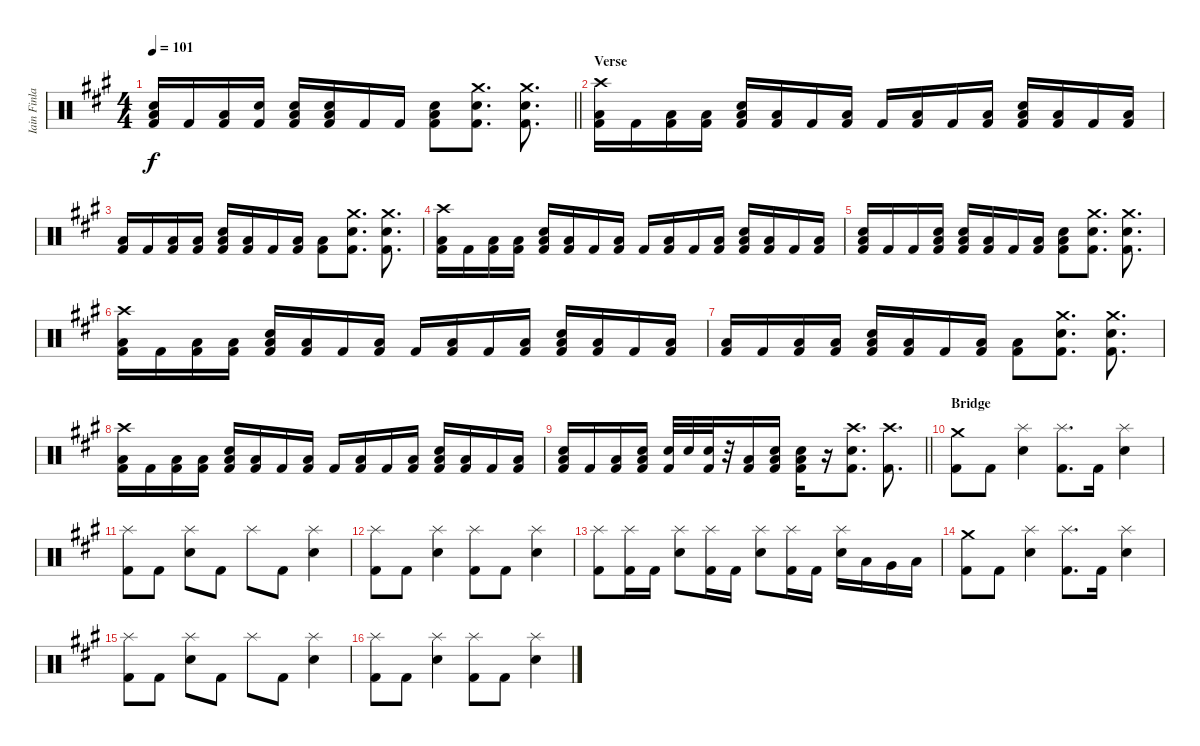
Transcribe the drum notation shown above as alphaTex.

\track ("Iain Finlay" "Iain Finla") {instrument percussion}
\staff {score}
\articulation defaults
\ts (4 4)
\tempo 101
\clef neutral
\barLineRight lightlight
\ks f#minor
("Snare (hit) 2" "Low Tom (hit)" "Kick (hit) 2").16{dy f} "Kick (hit) 2".16 ("Low Floor Tom (hit)" "Kick (hit) 2").16 ("Snare (hit) 2" "Kick (hit) 2").16 ("Snare (hit) 2" "Low Tom (hit)" "Kick (hit) 2").16 ("Snare (hit) 2" "Low Tom (hit)" "Kick (hit) 2").16 "Kick (hit) 2".16 "Kick (hit) 2".16 ("Snare (hit) 2" "Low Tom (hit)" "Kick (hit) 2").8 ("Crash medium (hit)" "Snare (hit) 2" "Kick (hit) 2").8{d} ("Crash medium (hit)" "Snare (hit) 2" "Kick (hit) 2").8{d} |
\section ("" "Verse")
("Crash high (hit)" "Low Floor Tom (hit)" "Kick (hit) 2").16 "Kick (hit) 2".16 ("Low Floor Tom (hit)" "Kick (hit) 2").16 ("Low Floor Tom (hit)" "Kick (hit) 2").16 ("Snare (hit) 2" "Low Tom (hit)" "Kick (hit) 2").16 ("Low Floor Tom (hit)" "Kick (hit) 2").16 "Kick (hit) 2".16 ("Low Floor Tom (hit)" "Kick (hit) 2").16 "Kick (hit) 2".16 ("Low Floor Tom (hit)" "Kick (hit) 2").16 "Kick (hit) 2".16 ("Low Floor Tom (hit)" "Kick (hit) 2").16 ("Snare (hit) 2" "Low Tom (hit)" "Kick (hit) 2").16 ("Low Floor Tom (hit)" "Kick (hit) 2").16 "Kick (hit) 2".16 ("Low Floor Tom (hit)" "Kick (hit) 2").16 |
("Low Floor Tom (hit)" "Kick (hit) 2").16 "Kick (hit) 2".16 ("Low Floor Tom (hit)" "Kick (hit) 2").16 ("Low Floor Tom (hit)" "Kick (hit) 2").16 ("Snare (hit) 2" "Low Tom (hit)" "Kick (hit) 2").16 ("Low Floor Tom (hit)" "Kick (hit) 2").16 "Kick (hit) 2".16 ("Low Floor Tom (hit)" "Kick (hit) 2").16 ("Low Tom (hit)" "Kick (hit) 2").8 ("Crash medium (hit)" "Snare (hit) 2" "Kick (hit) 2").8{d} ("Crash medium (hit)" "Snare (hit) 2" "Kick (hit) 2").8{d} |
("Crash high (hit)" "Low Floor Tom (hit)" "Kick (hit) 2").16 "Kick (hit) 2".16 ("Low Floor Tom (hit)" "Kick (hit) 2").16 ("Low Floor Tom (hit)" "Kick (hit) 2").16 ("Snare (hit) 2" "Low Tom (hit)" "Kick (hit) 2").16 ("Low Floor Tom (hit)" "Kick (hit) 2").16 "Kick (hit) 2".16 ("Low Floor Tom (hit)" "Kick (hit) 2").16 "Kick (hit) 2".16 ("Low Floor Tom (hit)" "Kick (hit) 2").16 "Kick (hit) 2".16 ("Low Floor Tom (hit)" "Kick (hit) 2").16 ("Snare (hit) 2" "Low Tom (hit)" "Kick (hit) 2").16 ("Low Floor Tom (hit)" "Kick (hit) 2").16 "Kick (hit) 2".16 ("Low Floor Tom (hit)" "Kick (hit) 2").16 |
("Snare (hit) 2" "Low Floor Tom (hit)" "Kick (hit) 2").16 "Kick (hit) 2".16 "Kick (hit) 2".16 ("Snare (hit) 2" "Low Floor Tom (hit)" "Kick (hit) 2").16 ("Snare (hit) 2" "Low Tom (hit)" "Kick (hit) 2").16 ("Low Floor Tom (hit)" "Kick (hit) 2").16 "Kick (hit) 2".16 ("Low Floor Tom (hit)" "Kick (hit) 2").16 ("Snare (hit) 2" "Low Tom (hit)" "Kick (hit) 2").8 ("Crash medium (hit)" "Snare (hit) 2" "Kick (hit) 2").8{d} ("Crash medium (hit)" "Snare (hit) 2" "Kick (hit) 2").8{d} |
("Crash high (hit)" "Low Floor Tom (hit)" "Kick (hit) 2").16 "Kick (hit) 2".16 ("Low Floor Tom (hit)" "Kick (hit) 2").16 ("Low Floor Tom (hit)" "Kick (hit) 2").16 ("Snare (hit) 2" "Low Tom (hit)" "Kick (hit) 2").16 ("Low Floor Tom (hit)" "Kick (hit) 2").16 "Kick (hit) 2".16 ("Low Floor Tom (hit)" "Kick (hit) 2").16 "Kick (hit) 2".16 ("Low Floor Tom (hit)" "Kick (hit) 2").16 "Kick (hit) 2".16 ("Low Floor Tom (hit)" "Kick (hit) 2").16 ("Snare (hit) 2" "Low Tom (hit)" "Kick (hit) 2").16 ("Low Floor Tom (hit)" "Kick (hit) 2").16 "Kick (hit) 2".16 ("Low Floor Tom (hit)" "Kick (hit) 2").16 |
("Low Floor Tom (hit)" "Kick (hit) 2").16 "Kick (hit) 2".16 ("Low Floor Tom (hit)" "Kick (hit) 2").16 ("Low Floor Tom (hit)" "Kick (hit) 2").16 ("Snare (hit) 2" "Low Tom (hit)" "Kick (hit) 2").16 ("Low Floor Tom (hit)" "Kick (hit) 2").16 "Kick (hit) 2".16 ("Low Floor Tom (hit)" "Kick (hit) 2").16 ("Low Tom (hit)" "Kick (hit) 2").8 ("Crash medium (hit)" "Snare (hit) 2" "Kick (hit) 2").8{d} ("Crash medium (hit)" "Snare (hit) 2" "Kick (hit) 2").8{d} |
("Crash high (hit)" "Low Floor Tom (hit)" "Kick (hit) 2").16 "Kick (hit) 2".16 ("Low Floor Tom (hit)" "Kick (hit) 2").16 ("Low Floor Tom (hit)" "Kick (hit) 2").16 ("Snare (hit) 2" "Low Tom (hit)" "Kick (hit) 2").16 ("Low Floor Tom (hit)" "Kick (hit) 2").16 "Kick (hit) 2".16 ("Low Floor Tom (hit)" "Kick (hit) 2").16 "Kick (hit) 2".16 ("Low Floor Tom (hit)" "Kick (hit) 2").16 "Kick (hit) 2".16 ("Low Floor Tom (hit)" "Kick (hit) 2").16 ("Snare (hit) 2" "Low Tom (hit)" "Kick (hit) 2").16 ("Low Floor Tom (hit)" "Kick (hit) 2").16 "Kick (hit) 2".16 ("Low Floor Tom (hit)" "Kick (hit) 2").16 |
\barLineRight lightlight
("Snare (hit) 2" "Low Tom (hit)" "Kick (hit) 2").16 "Kick (hit) 2".16 ("Low Floor Tom (hit)" "Kick (hit) 2").16 ("Snare (hit) 2" "Low Tom (hit)" "Kick (hit) 2").16 ("Snare (hit) 2" "Kick (hit) 2").32 "Snare (hit) 2".32 ("Snare (hit) 2" "Kick (hit) 2").32 r.32 ("Low Floor Tom (hit)" "Kick (hit) 2").16 ("Snare (hit) 2" "Low Tom (hit)" "Kick (hit) 2").16 ("Snare (hit) 2" "Low Tom (hit)" "Kick (hit) 2").16 r.16 ("Crash high (hit)" "Snare (hit) 2" "Kick (hit) 2").8{d} ("Crash high (hit)" "Kick (hit) 2").8{d} |
\section ("" "Bridge")
("Crash medium (hit)" "Kick (hit) 2").8 "Kick (hit) 2".8 ("Splash (hit)" "Snare (hit) 2").4 ("Splash (hit)" "Kick (hit) 2").8{d} "Kick (hit) 2".16 ("Splash (hit)" "Snare (hit) 2").4 |
("Splash (hit)" "Kick (hit) 2").8 "Kick (hit) 2".8 ("Splash (hit)" "Snare (hit) 2").8 "Kick (hit) 2".8 "Splash (hit)".8 "Kick (hit) 2".8 ("Splash (hit)" "Snare (hit) 2").4 |
("Splash (hit)" "Kick (hit) 2").8 "Kick (hit) 2".8 ("Splash (hit)" "Snare (hit) 2").4 ("Splash (hit)" "Kick (hit) 2").8 "Kick (hit) 2".8 ("Splash (hit)" "Snare (hit) 2").4 |
("Splash (hit)" "Kick (hit) 2").8 ("Splash (hit)" "Kick (hit) 2").16 "Kick (hit) 2".16 ("Splash (hit)" "Snare (hit) 2").8 ("Splash (hit)" "Kick (hit) 2").16 "Kick (hit) 2".16 ("Splash (hit)" "Snare (hit) 2").8 ("Splash (hit)" "Kick (hit) 2").16 "Kick (hit) 2".16 ("Splash (hit)" "Snare (hit) 2").16 "Low Tom (hit)".16 "Very Low Tom (hit)".16 "Low Floor Tom (hit)".16 |
("Crash medium (hit)" "Kick (hit) 2").8 "Kick (hit) 2".8 ("Splash (hit)" "Snare (hit) 2").4 ("Splash (hit)" "Kick (hit) 2").8{d} "Kick (hit) 2".16 ("Splash (hit)" "Snare (hit) 2").4 |
("Splash (hit)" "Kick (hit) 2").8 "Kick (hit) 2".8 ("Splash (hit)" "Snare (hit) 2").8 "Kick (hit) 2".8 "Splash (hit)".8 "Kick (hit) 2".8 ("Splash (hit)" "Snare (hit) 2").4 |
("Splash (hit)" "Kick (hit) 2").8 "Kick (hit) 2".8 ("Splash (hit)" "Snare (hit) 2").4 ("Splash (hit)" "Kick (hit) 2").8 "Kick (hit) 2".8 ("Splash (hit)" "Snare (hit) 2").4
